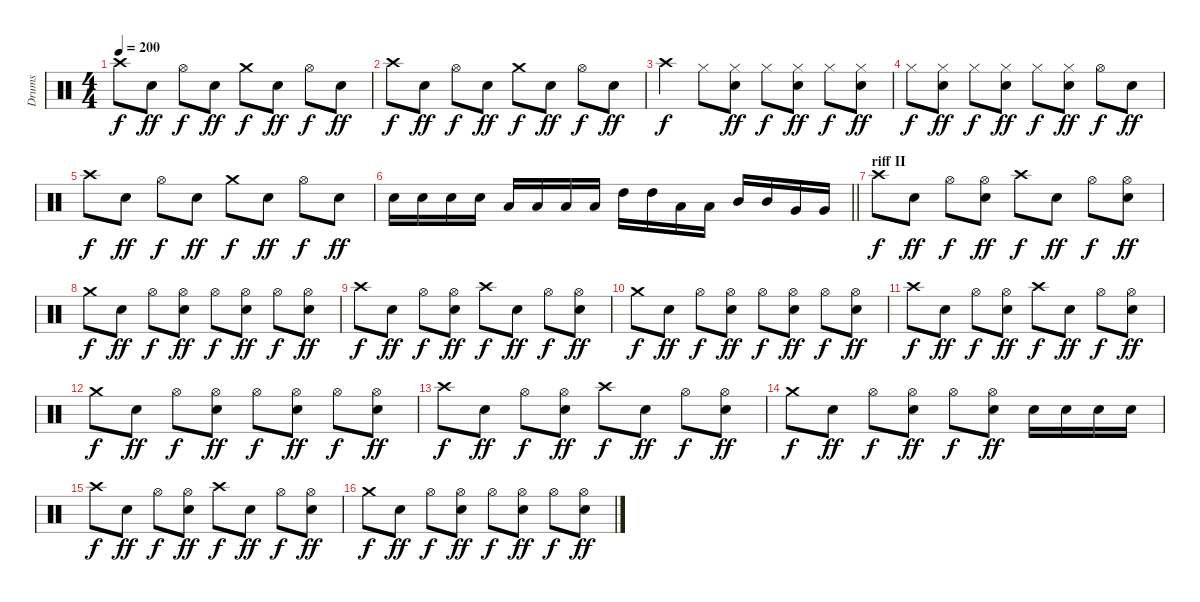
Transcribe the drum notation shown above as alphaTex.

\track ("Drums" "Drums") {instrument percussion}
\staff {score}
\articulation defaults
\ts (4 4)
\tempo 200
\clef neutral
\ks c "Crash high (hit)".8{dy f} "Snare (hit) 2".8{dy ff} "Hi-Hat (open)".8{dy f} "Snare (hit) 2".8{dy ff} "Crash medium (hit)".8{dy f} "Snare (hit) 2".8{dy ff} "Hi-Hat (open)".8{dy f} "Snare (hit) 2".8{dy ff}
|
"Crash high (hit)".8{dy f} "Snare (hit) 2".8{dy ff} "Hi-Hat (open)".8{dy f} "Snare (hit) 2".8{dy ff} "Crash medium (hit)".8{dy f} "Snare (hit) 2".8{dy ff} "Hi-Hat (open)".8{dy f} "Snare (hit) 2".8{dy ff} |
"Crash high (hit)".4{dy f} "Hi-Hat (closed)".8 ("Hi-Hat (closed)" "Snare (hit) 2").8{dy ff} "Hi-Hat (closed)".8{dy f} ("Hi-Hat (closed)" "Snare (hit) 2").8{dy ff} "Hi-Hat (closed)".8{dy f} ("Hi-Hat (closed)" "Snare (hit) 2").8{dy ff} |
"Hi-Hat (closed)".8{dy f} ("Hi-Hat (closed)" "Snare (hit) 2").8{dy ff} "Hi-Hat (closed)".8{dy f} ("Hi-Hat (closed)" "Snare (hit) 2").8{dy ff} "Hi-Hat (closed)".8{dy f} ("Hi-Hat (closed)" "Snare (hit) 2").8{dy ff} "Hi-Hat (open)".8{dy f} "Snare (hit) 2".8{dy ff} |
"Crash high (hit)".8{dy f} "Snare (hit) 2".8{dy ff} "Hi-Hat (open)".8{dy f} "Snare (hit) 2".8{dy ff} "Crash medium (hit)".8{dy f} "Snare (hit) 2".8{dy ff} "Hi-Hat (open)".8{dy f} "Snare (hit) 2".8{dy ff} |
\barLineRight lightlight "Snare (hit) 2".16 "Snare (hit) 2".16 "Snare (hit) 2".16 "Snare (hit) 2".16 "Low Tom (hit)".16 "Low Tom (hit)".16 "Low Tom (hit)".16 "Low Tom (hit)".16 "High Tom (hit)".16 "High Tom (hit)".16 "Low Tom (hit)".16 "Low Tom (hit)".16 "Mid Tom (hit)".16 "Mid Tom (hit)".16 "Very Low Tom (hit)".16 "Very Low Tom (hit)".16
|
\section ("" "riff II")
"Crash high (hit)".8{dy f} "Snare (hit) 2".8{dy ff} "Hi-Hat (open)".8{dy f} ("Hi-Hat (open)" "Snare (hit) 2").8{dy ff} "Crash high (hit)".8{dy f} "Snare (hit) 2".8{dy ff} "Hi-Hat (open)".8{dy f} ("Hi-Hat (open)" "Snare (hit) 2").8{dy ff} |
"Crash medium (hit)".8{dy f} "Snare (hit) 2".8{dy ff} "Hi-Hat (open)".8{dy f} ("Hi-Hat (open)" "Snare (hit) 2").8{dy ff} "Hi-Hat (open)".8{dy f} ("Hi-Hat (open)" "Snare (hit) 2").8{dy ff} "Hi-Hat (open)".8{dy f} ("Hi-Hat (open)" "Snare (hit) 2").8{dy ff} |
"Crash high (hit)".8{dy f} "Snare (hit) 2".8{dy ff} "Hi-Hat (open)".8{dy f} ("Hi-Hat (open)" "Snare (hit) 2").8{dy ff} "Crash high (hit)".8{dy f} "Snare (hit) 2".8{dy ff} "Hi-Hat (open)".8{dy f} ("Hi-Hat (open)" "Snare (hit) 2").8{dy ff} |
"Crash medium (hit)".8{dy f} "Snare (hit) 2".8{dy ff} "Hi-Hat (open)".8{dy f} ("Hi-Hat (open)" "Snare (hit) 2").8{dy ff} "Hi-Hat (open)".8{dy f} ("Hi-Hat (open)" "Snare (hit) 2").8{dy ff} "Hi-Hat (open)".8{dy f} ("Hi-Hat (open)" "Snare (hit) 2").8{dy ff} |
"Crash high (hit)".8{dy f} "Snare (hit) 2".8{dy ff} "Hi-Hat (open)".8{dy f} ("Hi-Hat (open)" "Snare (hit) 2").8{dy ff} "Crash high (hit)".8{dy f} "Snare (hit) 2".8{dy ff} "Hi-Hat (open)".8{dy f} ("Hi-Hat (open)" "Snare (hit) 2").8{dy ff} |
"Crash medium (hit)".8{dy f} "Snare (hit) 2".8{dy ff} "Hi-Hat (open)".8{dy f} ("Hi-Hat (open)" "Snare (hit) 2").8{dy ff} "Hi-Hat (open)".8{dy f} ("Hi-Hat (open)" "Snare (hit) 2").8{dy ff} "Hi-Hat (open)".8{dy f} ("Hi-Hat (open)" "Snare (hit) 2").8{dy ff} |
"Crash high (hit)".8{dy f} "Snare (hit) 2".8{dy ff} "Hi-Hat (open)".8{dy f} ("Hi-Hat (open)" "Snare (hit) 2").8{dy ff} "Crash high (hit)".8{dy f} "Snare (hit) 2".8{dy ff} "Hi-Hat (open)".8{dy f} ("Hi-Hat (open)" "Snare (hit) 2").8{dy ff} |
"Crash medium (hit)".8{dy f} "Snare (hit) 2".8{dy ff} "Hi-Hat (open)".8{dy f} ("Hi-Hat (open)" "Snare (hit) 2").8{dy ff} "Hi-Hat (open)".8{dy f} ("Hi-Hat (open)" "Snare (hit) 2").8{dy ff} "Snare (hit) 2".16 "Snare (hit) 2".16 "Snare (hit) 2".16 "Snare (hit) 2".16 |
"Crash high (hit)".8{dy f} "Snare (hit) 2".8{dy ff} "Hi-Hat (open)".8{dy f} ("Hi-Hat (open)" "Snare (hit) 2").8{dy ff} "Crash high (hit)".8{dy f} "Snare (hit) 2".8{dy ff} "Hi-Hat (open)".8{dy f} ("Hi-Hat (open)" "Snare (hit) 2").8{dy ff} |
"Crash medium (hit)".8{dy f} "Snare (hit) 2".8{dy ff} "Hi-Hat (open)".8{dy f} ("Hi-Hat (open)" "Snare (hit) 2").8{dy ff} "Hi-Hat (open)".8{dy f} ("Hi-Hat (open)" "Snare (hit) 2").8{dy ff} "Hi-Hat (open)".8{dy f} ("Hi-Hat (open)" "Snare (hit) 2").8{dy ff}
